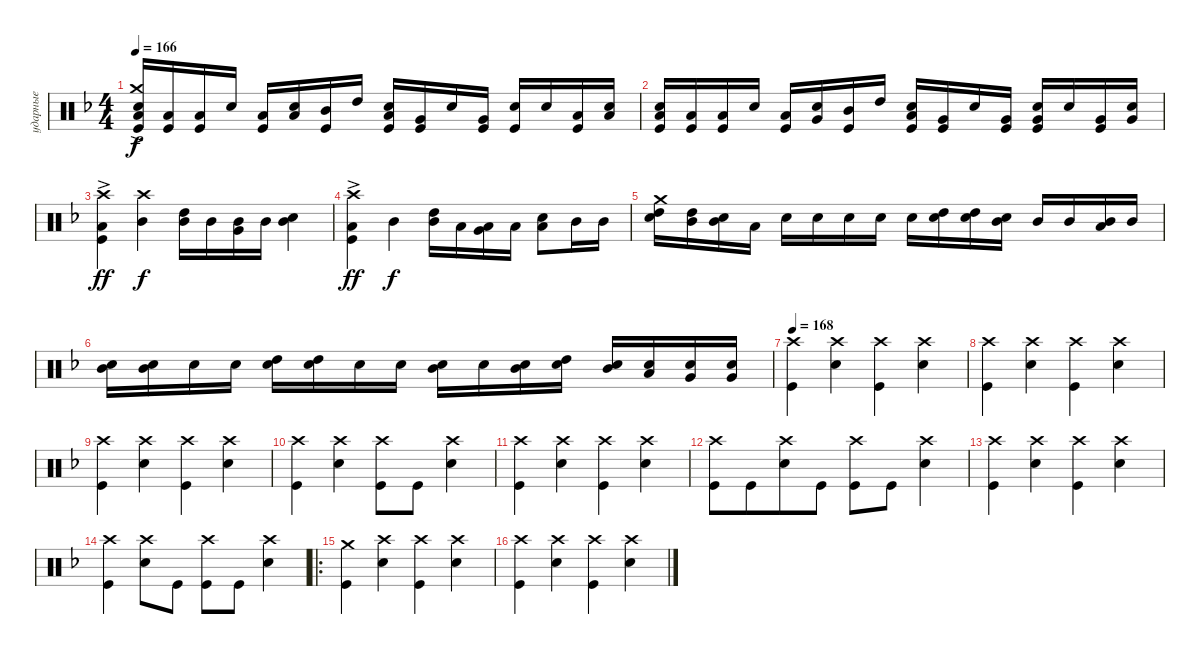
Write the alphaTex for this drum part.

\track ("ударные" "ударные") {instrument percussion}
\staff {score}
\articulation defaults
\ts (4 4)
\tempo 166
\clef neutral
\ks dminor
("Kick (hit)" "Crash medium (hit)"{ac} "Low Tom (hit)" "Snare (hit) 2").16{dy f} ("Kick (hit)" "Low Tom (hit)").16 ("Low Tom (hit)" "Kick (hit)").16 "Snare (hit) 2".16 ("Kick (hit)" "Low Tom (hit)").16 ("Low Tom (hit)" "Snare (hit) 2").16 ("Kick (hit)" "Mid Tom (hit)").16 "High Tom (hit)".16 ("Low Tom (hit)" "Snare (hit) 2" "Kick (hit)").16 ("Very Low Tom (hit)" "Kick (hit)").16 "Snare (hit) 2".16 ("Kick (hit)" "Very Low Tom (hit)").16 ("Snare (hit) 2" "Kick (hit)").16 "Snare (hit) 2".16 ("Low Tom (hit)" "Kick (hit)").16 ("Low Tom (hit)" "Snare (hit) 2").16 |
("Low Tom (hit)" "Snare (hit) 2" "Kick (hit)").16 ("Kick (hit)" "Low Tom (hit)").16 ("Low Tom (hit)" "Kick (hit)").16 "Snare (hit) 2".16 ("Low Tom (hit)" "Kick (hit)").16 ("Snare (hit) 2" "Very Low Tom (hit)").16 ("Mid Tom (hit)" "Kick (hit)").16 "High Tom (hit)".16 ("Low Tom (hit)" "Snare (hit) 2" "Kick (hit)").16 ("Very Low Tom (hit)" "Kick (hit)").16 "Snare (hit) 2".16 ("Very Low Tom (hit)" "Kick (hit)").16 ("Very Low Tom (hit)" "Snare (hit) 2" "Kick (hit)").16 "Snare (hit) 2".16 ("Very Low Tom (hit)" "Kick (hit)").16 ("Very Low Tom (hit)" "Snare (hit) 2").16 |
("Kick (hit)" "Low Floor Tom (hit)" "Crash high (hit)"{ac}).4{dy ff} ("Mid Tom (hit)" "Crash high (hit)").4{dy f} ("High Tom (hit)" "Mid Tom (hit)").16 "Mid Tom (hit)".16 ("Very Low Tom (hit)" "Mid Tom (hit)").16 "Mid Tom (hit)".16 ("Snare (hit) 2" "Mid Tom (hit)").4 |
("Kick (hit)" "Low Floor Tom (hit)" "Crash high (hit)"{ac}).4{dy ff} "Mid Tom (hit)".4{dy f} ("High Tom (hit)" "Mid Tom (hit)").16 "Low Tom (hit)".16 ("Low Tom (hit)" "Very Low Tom (hit)").16 "Low Tom (hit)".16 ("Low Tom (hit)" "Snare (hit) 2").8 "Mid Tom (hit)".16 "Mid Tom (hit)".16 |
("Crash medium (hit)" "Snare (hit) 2" "High Tom (hit)").16 ("High Tom (hit)" "Mid Tom (hit)").16 ("Mid Tom (hit)" "Snare (hit) 2").16 "Low Tom (hit)".16 "Snare (hit) 2".16 "Snare (hit) 2".16 "Electric Snare (hit)".16 "Electric Snare (hit)".16 "Snare (hit) 2".16 ("High Tom (hit)" "Electric Snare (hit)").16 ("High Tom (hit)" "Snare (hit) 2").16 ("Mid Tom (hit)" "Snare (hit) 2").16 "Mid Tom (hit)".16 "Mid Tom (hit)".16 ("Mid Tom (hit)" "Low Tom (hit)").16 "Mid Tom (hit)".16 |
("Snare (hit) 2" "Mid Tom (hit)").16 ("Mid Tom (hit)" "Snare (hit) 2").16 "Snare (hit) 2".16 "Electric Snare (hit)".16 ("High Tom (hit)" "Electric Snare (hit)").16 ("High Tom (hit)" "Snare (hit) 2").16 "Electric Snare (hit)".16 "Snare (hit) 2".16 ("Snare (hit) 2" "Mid Tom (hit)").16 "Electric Snare (hit)".16 ("Mid Tom (hit)" "Snare (hit) 2").16 ("High Tom (hit)" "Snare (hit) 2").16 ("Mid Tom (hit)" "Electric Snare (hit)").16 ("Low Tom (hit)" "Snare (hit) 2").16 ("Very Low Tom (hit)" "Snare (hit) 2").16 ("Very Low Tom (hit)" "Snare (hit) 2").16 |
\tempo 168
("Kick (hit)" "Crash high (hit)").4 ("Snare (hit) 2" "Crash high (hit)").4 ("Kick (hit)" "Crash high (hit)").4 ("Snare (hit) 2" "Crash high (hit)").4 |
("Kick (hit)" "Crash high (hit)").4 ("Snare (hit) 2" "Crash high (hit)").4 ("Kick (hit)" "Crash high (hit)").4 ("Snare (hit) 2" "Crash high (hit)").4 |
("Kick (hit)" "Crash high (hit)").4 ("Snare (hit) 2" "Crash high (hit)").4 ("Kick (hit)" "Crash high (hit)").4 ("Snare (hit) 2" "Crash high (hit)").4 |
("Kick (hit)" "Crash high (hit)").4 ("Snare (hit) 2" "Crash high (hit)").4 ("Kick (hit)" "Crash high (hit)").8 "Kick (hit)".8 ("Snare (hit) 2" "Crash high (hit)").4 |
("Kick (hit)" "Crash high (hit)").4 ("Snare (hit) 2" "Crash high (hit)").4 ("Kick (hit)" "Crash high (hit)").4 ("Snare (hit) 2" "Crash high (hit)").4 |
("Kick (hit)" "Crash high (hit)").8 "Kick (hit)".8{beam merge} ("Snare (hit) 2" "Crash high (hit)").8 "Kick (hit)".8 ("Kick (hit)" "Crash high (hit)").8 "Kick (hit)".8{beam merge} ("Snare (hit) 2" "Crash high (hit)").4 |
("Kick (hit)" "Crash high (hit)").4 ("Snare (hit) 2" "Crash high (hit)").4 ("Kick (hit)" "Crash high (hit)").4 ("Snare (hit) 2" "Crash high (hit)").4 |
("Kick (hit)" "Crash high (hit)").4 ("Snare (hit) 2" "Crash high (hit)").8 "Kick (hit)".8 ("Kick (hit)" "Crash high (hit)").8 "Kick (hit)".8 ("Snare (hit) 2" "Crash high (hit)").4 |
\ro
("Kick (hit)" "Crash medium (hit)").4 ("Snare (hit) 2" "Crash high (hit)").4 ("Kick (hit)" "Crash high (hit)").4 ("Snare (hit) 2" "Crash high (hit)").4 |
("Kick (hit)" "Crash high (hit)").4 ("Snare (hit) 2" "Crash high (hit)").4 ("Kick (hit)" "Crash high (hit)").4 ("Snare (hit) 2" "Crash high (hit)").4
